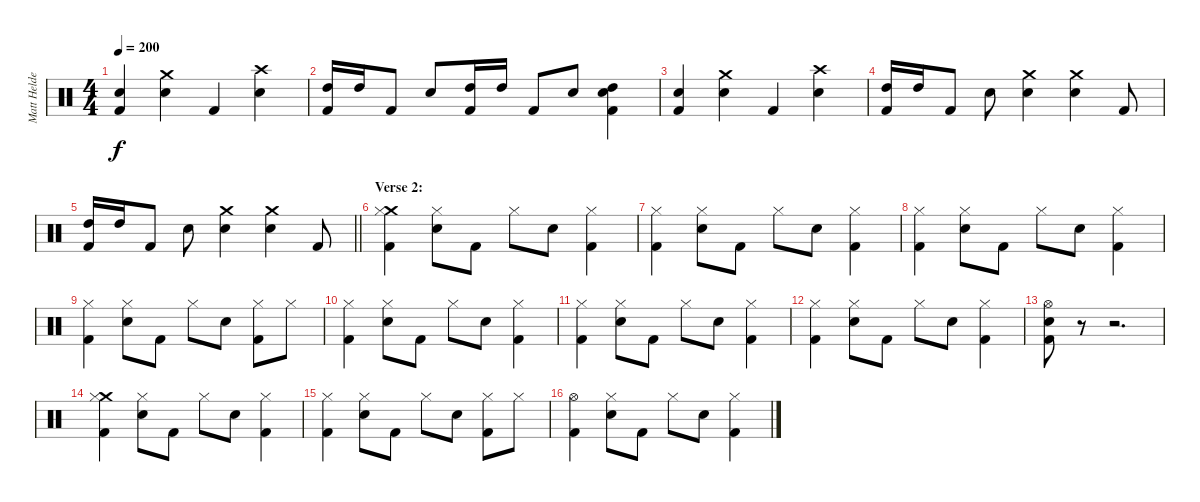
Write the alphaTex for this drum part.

\track ("Matt Helders (Drums/Percussion)" "Matt Helde") {instrument percussion}
\staff {score}
\articulation defaults
\ts (4 4)
\tempo 200
\clef neutral
\ks c
("Snare (hit) 2" "Kick (hit) 2").4{dy f} ("Crash medium (hit)" "Snare (hit) 2").4 "Kick (hit) 2".4 ("Crash high (hit)" "Snare (hit) 2").4 |
("High Tom (hit)" "Kick (hit) 2").16 "High Tom (hit)".16 "Kick (hit) 2".8 "Snare (hit) 2".8 ("High Tom (hit)" "Kick (hit) 2").16 "High Tom (hit)".16 "Kick (hit) 2".8 "Snare (hit) 2".8 ("High Tom (hit)" "Snare (hit) 2" "Kick (hit) 2").4 |
("Snare (hit) 2" "Kick (hit) 2").4 ("Crash medium (hit)" "Snare (hit) 2").4 "Kick (hit) 2".4 ("Crash high (hit)" "Snare (hit) 2").4 |
("High Tom (hit)" "Kick (hit) 2").16 "High Tom (hit)".16 "Kick (hit) 2".8 "Snare (hit) 2".8 ("Crash medium (hit)" "Snare (hit) 2").4 ("Crash medium (hit)" "Snare (hit) 2").4 "Kick (hit) 2".8 |
\barLineRight lightlight
("High Tom (hit)" "Kick (hit) 2").16 "High Tom (hit)".16 "Kick (hit) 2".8 "Snare (hit) 2".8 ("Crash medium (hit)" "Snare (hit) 2").4 ("Crash medium (hit)" "Snare (hit) 2").4 "Kick (hit) 2".8 |
\section ("" "Verse 2:")
("Crash medium (hit)" "Hi-Hat (closed)" "Kick (hit) 2").4 ("Hi-Hat (closed)" "Snare (hit) 2").8 "Kick (hit) 2".8 "Hi-Hat (closed)".8 "Snare (hit) 2".8 ("Hi-Hat (closed)" "Kick (hit) 2").4 |
("Hi-Hat (closed)" "Kick (hit) 2").4 ("Hi-Hat (closed)" "Snare (hit) 2").8 "Kick (hit) 2".8 "Hi-Hat (closed)".8 "Snare (hit) 2".8 ("Hi-Hat (closed)" "Kick (hit) 2").4 |
("Hi-Hat (closed)" "Kick (hit) 2").4 ("Hi-Hat (closed)" "Snare (hit) 2").8 "Kick (hit) 2".8 "Hi-Hat (closed)".8 "Snare (hit) 2".8 ("Hi-Hat (closed)" "Kick (hit) 2").4 |
("Hi-Hat (closed)" "Kick (hit) 2").4 ("Hi-Hat (closed)" "Snare (hit) 2").8 "Kick (hit) 2".8 "Hi-Hat (closed)".8 "Snare (hit) 2".8 ("Hi-Hat (closed)" "Kick (hit) 2").8 "Hi-Hat (closed)".8 |
("Hi-Hat (closed)" "Kick (hit) 2").4 ("Hi-Hat (closed)" "Snare (hit) 2").8 "Kick (hit) 2".8 "Hi-Hat (closed)".8 "Snare (hit) 2".8 ("Hi-Hat (closed)" "Kick (hit) 2").4 |
("Hi-Hat (closed)" "Kick (hit) 2").4 ("Hi-Hat (closed)" "Snare (hit) 2").8 "Kick (hit) 2".8 "Hi-Hat (closed)".8 "Snare (hit) 2".8 ("Hi-Hat (closed)" "Kick (hit) 2").4 |
("Hi-Hat (closed)" "Kick (hit) 2").4 ("Hi-Hat (closed)" "Snare (hit) 2").8 "Kick (hit) 2".8 "Hi-Hat (closed)".8 "Snare (hit) 2".8 ("Hi-Hat (closed)" "Kick (hit) 2").4 |
("Hi-Hat (open)" "Snare (hit) 2" "Kick (hit) 2").8 r.8 r.2{d} |
("Crash medium (hit)" "Hi-Hat (closed)" "Kick (hit) 2").4 ("Hi-Hat (closed)" "Snare (hit) 2").8 "Kick (hit) 2".8 "Hi-Hat (closed)".8 "Snare (hit) 2".8 ("Hi-Hat (closed)" "Kick (hit) 2").4 |
("Hi-Hat (closed)" "Kick (hit) 2").4 ("Hi-Hat (closed)" "Snare (hit) 2").8 "Kick (hit) 2".8 "Hi-Hat (closed)".8 "Snare (hit) 2".8 ("Hi-Hat (closed)" "Kick (hit) 2").8 "Hi-Hat (closed)".8 |
("Hi-Hat (open)" "Kick (hit) 2").4 ("Hi-Hat (closed)" "Snare (hit) 2").8 "Kick (hit) 2".8 "Hi-Hat (closed)".8 "Snare (hit) 2".8 ("Hi-Hat (closed)" "Kick (hit) 2").4
